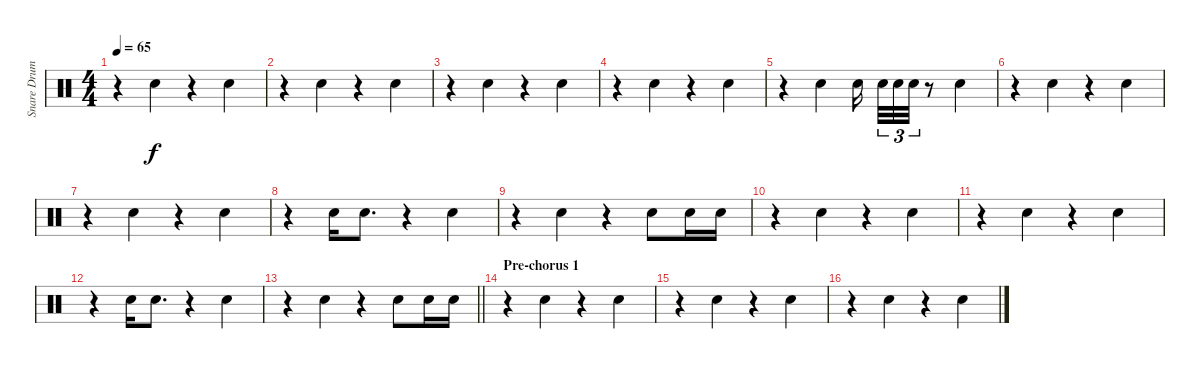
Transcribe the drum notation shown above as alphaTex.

\track ("Snare Drum - reverb" "Snare Drum") {instrument percussion}
\staff {score}
\articulation defaults
\ts (4 4)
\tempo 65
\clef neutral
\ks c
r.4{dy f} "Snare (hit) 2".4 r.4 "Snare (hit) 2".4 |
r.4 "Snare (hit) 2".4 r.4 "Snare (hit) 2".4 |
r.4 "Snare (hit) 2".4 r.4 "Snare (hit) 2".4 |
r.4 "Snare (hit) 2".4 r.4 "Snare (hit) 2".4 |
r.4 "Snare (hit) 2".4 "Snare (hit) 2".16{beam splitsecondary} "Snare (hit) 2".32{tu (3 2)} "Snare (hit) 2".32{tu (3 2)} "Snare (hit) 2".32{tu (3 2)} r.8 "Snare (hit) 2".4 |
r.4 "Snare (hit) 2".4 r.4 "Snare (hit) 2".4 |
r.4 "Snare (hit) 2".4 r.4 "Snare (hit) 2".4 |
r.4{beam merge} "Snare (hit) 2".16 "Snare (hit) 2".8{d} r.4 "Snare (hit) 2".4 |
r.4 "Snare (hit) 2".4 r.4{beam split} "Snare (hit) 2".8 "Snare (hit) 2".16 "Snare (hit) 2".16 |
r.4 "Snare (hit) 2".4 r.4 "Snare (hit) 2".4 |
r.4 "Snare (hit) 2".4 r.4 "Snare (hit) 2".4 |
r.4{beam merge} "Snare (hit) 2".16 "Snare (hit) 2".8{d} r.4 "Snare (hit) 2".4 |
\barLineRight lightlight
r.4 "Snare (hit) 2".4 r.4{beam split} "Snare (hit) 2".8 "Snare (hit) 2".16 "Snare (hit) 2".16 |
\section ("" "Pre-chorus 1")
r.4 "Snare (hit) 2".4 r.4 "Snare (hit) 2".4 |
r.4 "Snare (hit) 2".4 r.4 "Snare (hit) 2".4 |
r.4 "Snare (hit) 2".4 r.4 "Snare (hit) 2".4
